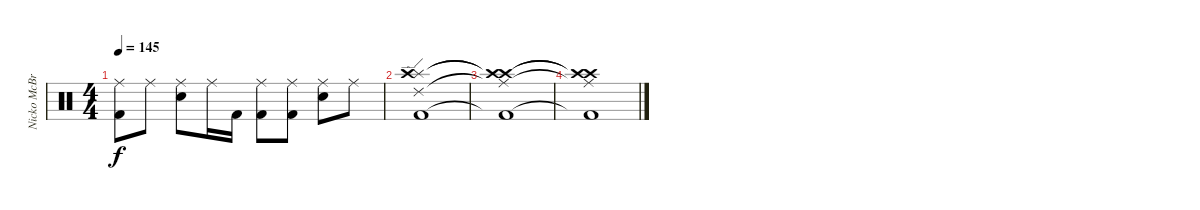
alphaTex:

\track ("Nicko McBrain" "Nicko McBr") {instrument percussion}
\staff {score}
\articulation defaults
\ts (4 4)
\tempo 145
\clef neutral
\ks c
("Ride (middle)" "Kick (hit) 2").8{dy f} "Ride (middle)".8 ("Ride (middle)" "Snare (hit) 2").8 "Ride (middle)".16 "Kick (hit) 2".16 ("Ride (middle)" "Kick (hit) 2").8 ("Ride (middle)" "Kick (hit) 2").8 ("Ride (middle)" "Snare (hit) 2").8 "Ride (middle)".8 |
("Ride (edge) 2" "Splash (hit)" "Crash high (hit)" "Kick (hit) 2").1 |
("Ride (middle)"{t} "Crash high (hit)"{t} "Crash high (hit)"{t} "Kick (hit) 2"{t}).1 |
("Ride (middle)"{t} "Crash high (hit)"{t} "Crash high (hit)"{t} "Kick (hit) 2"{t}).1
